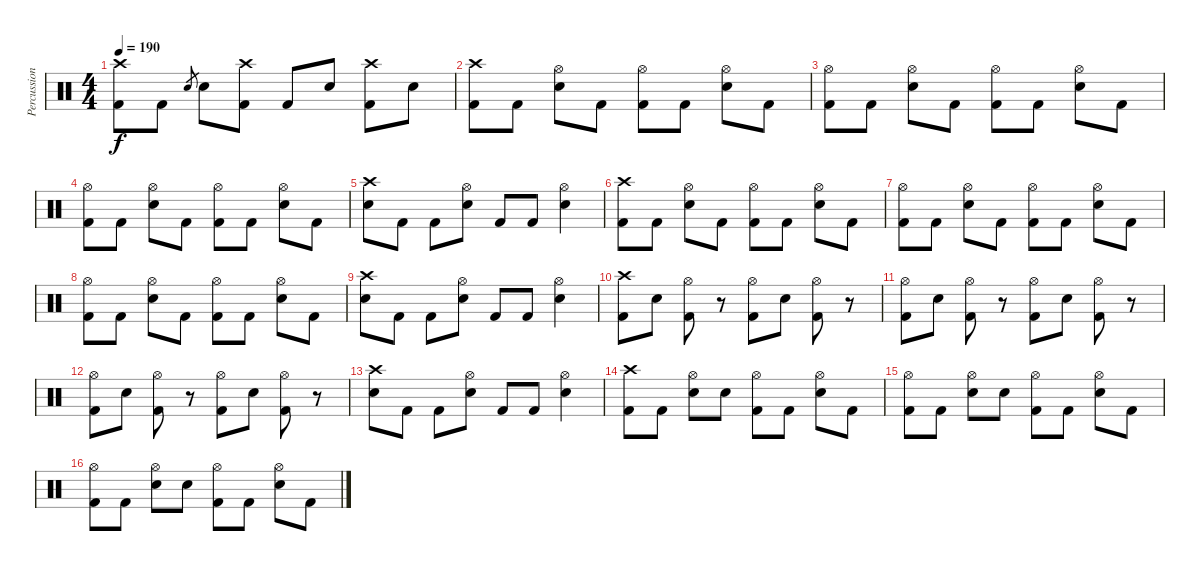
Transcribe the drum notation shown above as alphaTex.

\track ("Percussion" "Percussion") {instrument percussion}
\staff {score}
\articulation defaults
\ts (4 4)
\tempo 190
\clef neutral
\ks c
("Crash high (hit)" "Kick (hit) 2").8{dy f} "Kick (hit) 2".8 "Snare (hit) 2".8{gr} "Snare (hit) 2".8 ("Crash high (hit)" "Kick (hit) 2").8 "Kick (hit) 2".8 "Snare (hit) 2".8 ("Crash high (hit)" "Kick (hit) 2").8 "Snare (hit) 2".8 |
("Crash high (hit)" "Kick (hit) 2").8 "Kick (hit) 2".8 ("Hi-Hat (open)" "Snare (hit) 2").8 "Kick (hit) 2".8 ("Hi-Hat (open)" "Kick (hit) 2").8 "Kick (hit) 2".8 ("Hi-Hat (open)" "Snare (hit) 2").8 "Kick (hit) 2".8 |
("Hi-Hat (open)" "Kick (hit) 2").8 "Kick (hit) 2".8 ("Hi-Hat (open)" "Snare (hit) 2").8 "Kick (hit) 2".8 ("Hi-Hat (open)" "Kick (hit) 2").8 "Kick (hit) 2".8 ("Hi-Hat (open)" "Snare (hit) 2").8 "Kick (hit) 2".8 |
("Hi-Hat (open)" "Kick (hit) 2").8 "Kick (hit) 2".8 ("Hi-Hat (open)" "Snare (hit) 2").8 "Kick (hit) 2".8 ("Hi-Hat (open)" "Kick (hit) 2").8 "Kick (hit) 2".8 ("Hi-Hat (open)" "Snare (hit) 2").8 "Kick (hit) 2".8 |
("Crash high (hit)" "Snare (hit) 2").8 "Kick (hit) 2".8 "Kick (hit) 2".8 ("Hi-Hat (open)" "Snare (hit) 2").8 "Kick (hit) 2".8 "Kick (hit) 2".8 ("Hi-Hat (open)" "Snare (hit) 2").4 |
("Crash high (hit)" "Kick (hit) 2").8 "Kick (hit) 2".8 ("Hi-Hat (open)" "Snare (hit) 2").8 "Kick (hit) 2".8 ("Hi-Hat (open)" "Kick (hit) 2").8 "Kick (hit) 2".8 ("Hi-Hat (open)" "Snare (hit) 2").8 "Kick (hit) 2".8 |
("Hi-Hat (open)" "Kick (hit) 2").8 "Kick (hit) 2".8 ("Hi-Hat (open)" "Snare (hit) 2").8 "Kick (hit) 2".8 ("Hi-Hat (open)" "Kick (hit) 2").8 "Kick (hit) 2".8 ("Hi-Hat (open)" "Snare (hit) 2").8 "Kick (hit) 2".8 |
("Hi-Hat (open)" "Kick (hit) 2").8 "Kick (hit) 2".8 ("Hi-Hat (open)" "Snare (hit) 2").8 "Kick (hit) 2".8 ("Hi-Hat (open)" "Kick (hit) 2").8 "Kick (hit) 2".8 ("Hi-Hat (open)" "Snare (hit) 2").8 "Kick (hit) 2".8 |
("Crash high (hit)" "Snare (hit) 2").8 "Kick (hit) 2".8 "Kick (hit) 2".8 ("Hi-Hat (open)" "Snare (hit) 2").8 "Kick (hit) 2".8 "Kick (hit) 2".8 ("Hi-Hat (open)" "Snare (hit) 2").4 |
("Crash high (hit)" "Kick (hit) 2").8 "Snare (hit) 2".8 ("Hi-Hat (open)" "Kick (hit) 2").8 r.8 ("Hi-Hat (open)" "Kick (hit) 2").8 "Snare (hit) 2".8 ("Hi-Hat (open)" "Kick (hit) 2").8 r.8 |
("Hi-Hat (open)" "Kick (hit) 2").8 "Snare (hit) 2".8 ("Hi-Hat (open)" "Kick (hit) 2").8 r.8 ("Hi-Hat (open)" "Kick (hit) 2").8 "Snare (hit) 2".8 ("Hi-Hat (open)" "Kick (hit) 2").8 r.8 |
("Hi-Hat (open)" "Kick (hit) 2").8 "Snare (hit) 2".8 ("Hi-Hat (open)" "Kick (hit) 2").8 r.8 ("Hi-Hat (open)" "Kick (hit) 2").8 "Snare (hit) 2".8 ("Hi-Hat (open)" "Kick (hit) 2").8 r.8 |
("Crash high (hit)" "Snare (hit) 2").8 "Kick (hit) 2".8 "Kick (hit) 2".8 ("Hi-Hat (open)" "Snare (hit) 2").8 "Kick (hit) 2".8 "Kick (hit) 2".8 ("Hi-Hat (open)" "Snare (hit) 2").4 |
("Crash high (hit)" "Kick (hit) 2").8 "Kick (hit) 2".8 ("Hi-Hat (open)" "Snare (hit) 2").8 "Snare (hit) 2".8 ("Hi-Hat (open)" "Kick (hit) 2").8 "Kick (hit) 2".8 ("Hi-Hat (open)" "Snare (hit) 2").8 "Kick (hit) 2".8 |
("Hi-Hat (open)" "Kick (hit) 2").8 "Kick (hit) 2".8 ("Hi-Hat (open)" "Snare (hit) 2").8 "Snare (hit) 2".8 ("Hi-Hat (open)" "Kick (hit) 2").8 "Kick (hit) 2".8 ("Hi-Hat (open)" "Snare (hit) 2").8 "Kick (hit) 2".8 |
("Hi-Hat (open)" "Kick (hit) 2").8 "Kick (hit) 2".8 ("Hi-Hat (open)" "Snare (hit) 2").8 "Snare (hit) 2".8 ("Hi-Hat (open)" "Kick (hit) 2").8 "Kick (hit) 2".8 ("Hi-Hat (open)" "Snare (hit) 2").8 "Kick (hit) 2".8
